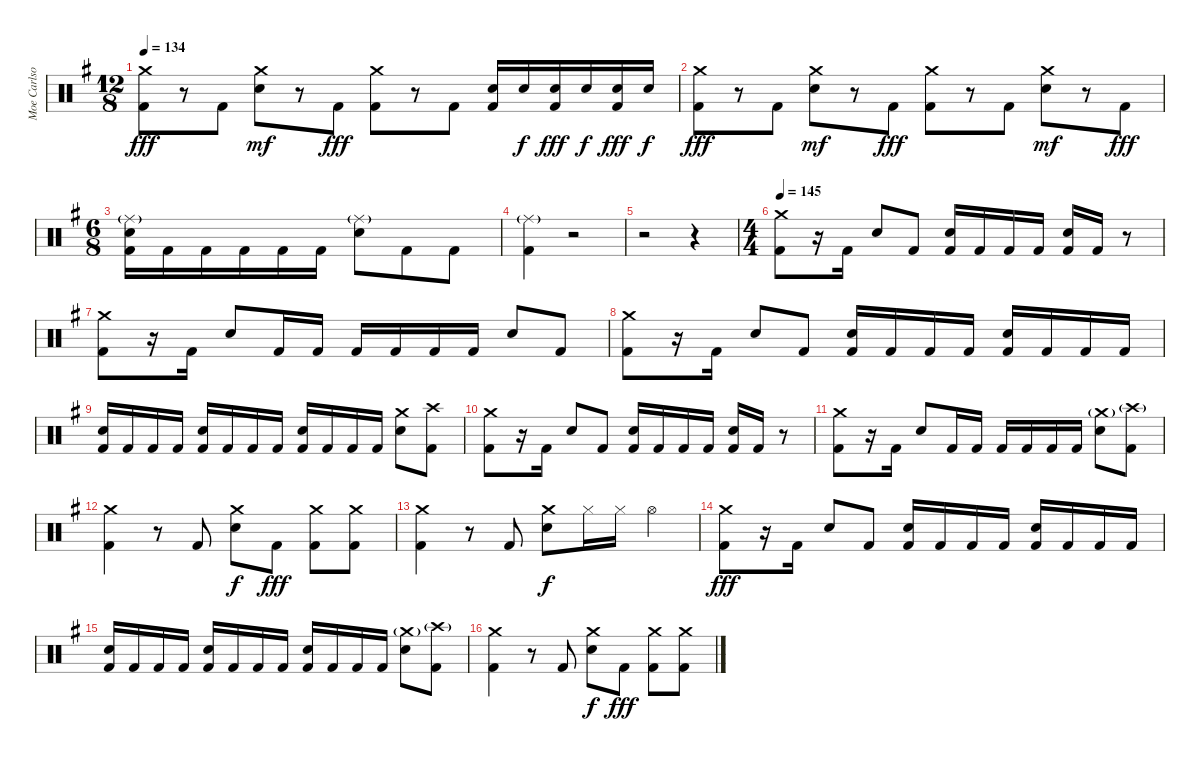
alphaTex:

\track ("Moe Carlson" "Moe Carlso") {instrument percussion}
\staff {score}
\articulation defaults
\ts (12 8)
\tempo 134
\clef neutral
\ks g
("Crash medium (hit)" "Kick (hit) 2").8{dy fff} r.8 "Kick (hit) 2".8 ("Crash medium (hit)" "Electric Snare (hit)").8{dy mf} r.8 "Kick (hit) 2".8{dy fff} ("Crash medium (hit)" "Kick (hit) 2").8 r.8 "Kick (hit) 2".8 ("Electric Snare (hit)" "Kick (hit) 2").16 "Electric Snare (hit)".16{dy f} ("Electric Snare (hit)" "Kick (hit) 2").16{dy fff} "Electric Snare (hit)".16{dy f} ("Electric Snare (hit)" "Kick (hit) 2").16{dy fff} "Electric Snare (hit)".16{dy f} |
("Crash medium (hit)" "Kick (hit) 2").8{dy fff} r.8 "Kick (hit) 2".8 ("Crash medium (hit)" "Electric Snare (hit)").8{dy mf} r.8 "Kick (hit) 2".8{dy fff} ("Crash medium (hit)" "Kick (hit) 2").8 r.8 "Kick (hit) 2".8 ("Crash medium (hit)" "Electric Snare (hit)").8{dy mf} r.8 "Kick (hit) 2".8{dy fff} |
\ts (6 8)
("Ride (middle)"{g} "Electric Snare (hit)" "Kick (hit) 2").16 "Kick (hit) 2".16 "Kick (hit) 2".16 "Kick (hit) 2".16 "Kick (hit) 2".16 "Kick (hit) 2".16 ("Ride (middle)"{g} "Electric Snare (hit)").8 "Kick (hit) 2".8 "Kick (hit) 2".8 |
("Ride (middle)"{g} "Kick (hit) 2").4 r.2 |
r.2 r.4 |
\ts (4 4)
\tempo 145
("Crash medium (hit)" "Kick (hit) 2").8 r.16 "Kick (hit) 2".16 "Electric Snare (hit)".8 "Kick (hit) 2".8 ("Electric Snare (hit)" "Kick (hit) 2").16 "Kick (hit) 2".16 "Kick (hit) 2".16 "Kick (hit) 2".16 ("Electric Snare (hit)" "Kick (hit) 2").16 "Kick (hit) 2".16 r.8 |
("Crash medium (hit)" "Kick (hit) 2").8 r.16 "Kick (hit) 2".16 "Electric Snare (hit)".8 "Kick (hit) 2".16 "Kick (hit) 2".16 "Kick (hit) 2".16 "Kick (hit) 2".16 "Kick (hit) 2".16 "Kick (hit) 2".16 "Electric Snare (hit)".8 "Kick (hit) 2".8 |
("Crash medium (hit)" "Kick (hit) 2").8 r.16 "Kick (hit) 2".16 "Electric Snare (hit)".8 "Kick (hit) 2".8 ("Electric Snare (hit)" "Kick (hit) 2").16 "Kick (hit) 2".16 "Kick (hit) 2".16 "Kick (hit) 2".16 ("Electric Snare (hit)" "Kick (hit) 2").16 "Kick (hit) 2".16 "Kick (hit) 2".16 "Kick (hit) 2".16 |
("Electric Snare (hit)" "Kick (hit) 2").16 "Kick (hit) 2".16 "Kick (hit) 2".16 "Kick (hit) 2".16 ("Electric Snare (hit)" "Kick (hit) 2").16 "Kick (hit) 2".16 "Kick (hit) 2".16 "Kick (hit) 2".16 ("Electric Snare (hit)" "Kick (hit) 2").16 "Kick (hit) 2".16 "Kick (hit) 2".16 "Kick (hit) 2".16 ("Crash medium (hit)" "Electric Snare (hit)").8 ("Crash high (hit)" "Kick (hit) 2").8 |
("Crash medium (hit)" "Kick (hit) 2").8 r.16 "Kick (hit) 2".16 "Electric Snare (hit)".8 "Kick (hit) 2".8 ("Electric Snare (hit)" "Kick (hit) 2").16 "Kick (hit) 2".16 "Kick (hit) 2".16 "Kick (hit) 2".16 ("Electric Snare (hit)" "Kick (hit) 2").16 "Kick (hit) 2".16 r.8 |
("Crash medium (hit)" "Kick (hit) 2").8 r.16 "Kick (hit) 2".16 "Electric Snare (hit)".8 "Kick (hit) 2".16 "Kick (hit) 2".16 "Kick (hit) 2".16 "Kick (hit) 2".16 "Kick (hit) 2".16 "Kick (hit) 2".16 ("Crash medium (hit)"{g} "Electric Snare (hit)").8 ("Crash high (hit)"{g} "Kick (hit) 2").8 |
("Crash medium (hit)" "Kick (hit) 2").4 r.8 "Kick (hit) 2".8 ("Crash medium (hit)" "Electric Snare (hit)").8{dy f} "Kick (hit) 2".8{dy fff} ("Crash medium (hit)" "Kick (hit) 2").8 ("Crash medium (hit)" "Kick (hit) 2").8 |
("Crash medium (hit)" "Kick (hit) 2").4 r.8 "Kick (hit) 2".8 ("Crash medium (hit)" "Electric Snare (hit)").8{dy f} "Hi-Hat (closed)".16 "Hi-Hat (closed)".16 "Hi-Hat (open)".4 |
("Crash medium (hit)" "Kick (hit) 2").8{dy fff} r.16 "Kick (hit) 2".16 "Electric Snare (hit)".8 "Kick (hit) 2".8 ("Electric Snare (hit)" "Kick (hit) 2").16 "Kick (hit) 2".16 "Kick (hit) 2".16 "Kick (hit) 2".16 ("Electric Snare (hit)" "Kick (hit) 2").16 "Kick (hit) 2".16 "Kick (hit) 2".16 "Kick (hit) 2".16 |
("Electric Snare (hit)" "Kick (hit) 2").16 "Kick (hit) 2".16 "Kick (hit) 2".16 "Kick (hit) 2".16 ("Electric Snare (hit)" "Kick (hit) 2").16 "Kick (hit) 2".16 "Kick (hit) 2".16 "Kick (hit) 2".16 ("Electric Snare (hit)" "Kick (hit) 2").16 "Kick (hit) 2".16 "Kick (hit) 2".16 "Kick (hit) 2".16 ("Crash medium (hit)"{g} "Electric Snare (hit)").8 ("Crash high (hit)"{g} "Kick (hit) 2").8 |
("Crash medium (hit)" "Kick (hit) 2").4 r.8 "Kick (hit) 2".8 ("Crash medium (hit)" "Electric Snare (hit)").8{dy f} "Kick (hit) 2".8{dy fff} ("Crash medium (hit)" "Kick (hit) 2").8 ("Crash medium (hit)" "Kick (hit) 2").8
